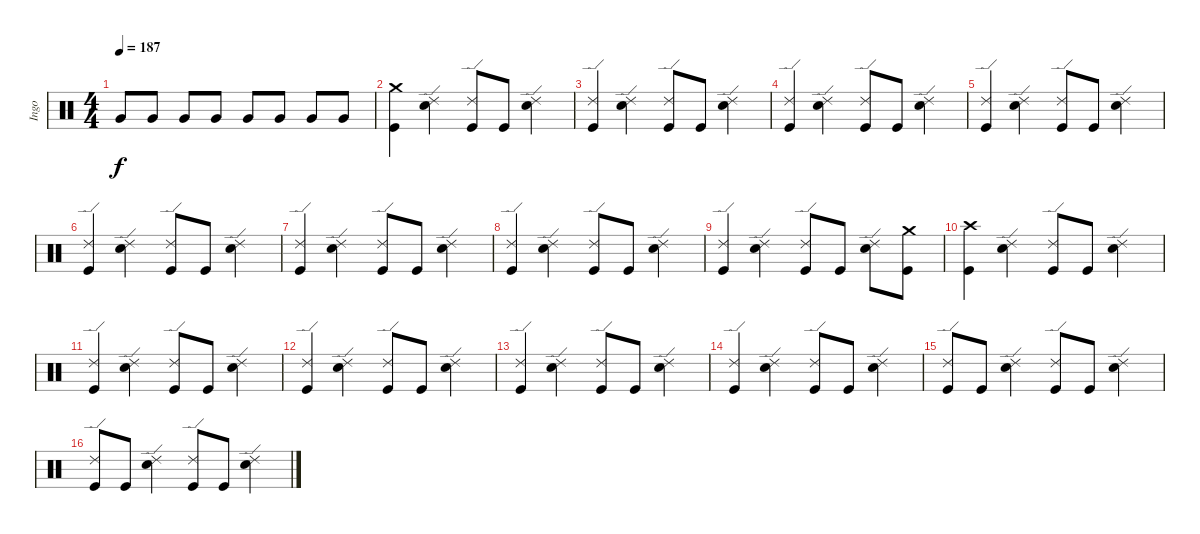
\track ("Ingo" "Ingo") {instrument percussion}
\staff {score}
\articulation defaults
\ts (4 4)
\tempo 187
\clef neutral
\ks c "Very Low Tom (hit)".8{dy f volume 13} "Very Low Tom (hit)".8 "Very Low Tom (hit)".8 "Very Low Tom (hit)".8 "Very Low Tom (hit)".8 "Very Low Tom (hit)".8 "Very Low Tom (hit)".8 "Very Low Tom (hit)".8
|
("Crash medium (hit)" "Kick (hit)").4 ("Ride (edge) 2" "Snare (hit) 2").4 ("Ride (edge) 2" "Kick (hit)").8 "Kick (hit)".8 ("Ride (edge) 2" "Snare (hit) 2").4 |
("Ride (edge) 2" "Kick (hit)").4 ("Ride (edge) 2" "Snare (hit) 2").4 ("Ride (edge) 2" "Kick (hit)").8 "Kick (hit)".8 ("Ride (edge) 2" "Snare (hit) 2").4 |
("Ride (edge) 2" "Kick (hit)").4 ("Ride (edge) 2" "Snare (hit) 2").4 ("Ride (edge) 2" "Kick (hit)").8 "Kick (hit)".8 ("Ride (edge) 2" "Snare (hit) 2").4 |
("Ride (edge) 2" "Kick (hit)").4 ("Ride (edge) 2" "Snare (hit) 2").4 ("Ride (edge) 2" "Kick (hit)").8 "Kick (hit)".8 ("Ride (edge) 2" "Snare (hit) 2").4 |
("Ride (edge) 2" "Kick (hit)").4 ("Ride (edge) 2" "Snare (hit) 2").4 ("Ride (edge) 2" "Kick (hit)").8 "Kick (hit)".8 ("Ride (edge) 2" "Snare (hit) 2").4 |
("Ride (edge) 2" "Kick (hit)").4 ("Ride (edge) 2" "Snare (hit) 2").4 ("Ride (edge) 2" "Kick (hit)").8 "Kick (hit)".8 ("Ride (edge) 2" "Snare (hit) 2").4 |
("Ride (edge) 2" "Kick (hit)").4 ("Ride (edge) 2" "Snare (hit) 2").4 ("Ride (edge) 2" "Kick (hit)").8 "Kick (hit)".8 ("Ride (edge) 2" "Snare (hit) 2").4 |
("Ride (edge) 2" "Kick (hit)").4 ("Ride (edge) 2" "Snare (hit) 2").4 ("Ride (edge) 2" "Kick (hit)").8 "Kick (hit)".8 ("Ride (edge) 2" "Snare (hit) 2").8 ("Crash medium (hit)" "Kick (hit)").8 |
("Crash high (hit)" "Kick (hit)").4 ("Ride (edge) 2" "Snare (hit) 2").4 ("Ride (edge) 2" "Kick (hit)").8 "Kick (hit)".8 ("Ride (edge) 2" "Snare (hit) 2").4 |
("Ride (edge) 2" "Kick (hit)").4 ("Ride (edge) 2" "Snare (hit) 2").4 ("Ride (edge) 2" "Kick (hit)").8 "Kick (hit)".8 ("Ride (edge) 2" "Snare (hit) 2").4 |
("Ride (edge) 2" "Kick (hit)").4 ("Ride (edge) 2" "Snare (hit) 2").4 ("Ride (edge) 2" "Kick (hit)").8 "Kick (hit)".8 ("Ride (edge) 2" "Snare (hit) 2").4 |
("Ride (edge) 2" "Kick (hit)").4 ("Ride (edge) 2" "Snare (hit) 2").4 ("Ride (edge) 2" "Kick (hit)").8 "Kick (hit)".8 ("Ride (edge) 2" "Snare (hit) 2").4 |
("Ride (edge) 2" "Kick (hit)").4 ("Ride (edge) 2" "Snare (hit) 2").4 ("Ride (edge) 2" "Kick (hit)").8 "Kick (hit)".8 ("Ride (edge) 2" "Snare (hit) 2").4 |
("Ride (edge) 2" "Kick (hit)").8 "Kick (hit)".8 ("Ride (edge) 2" "Snare (hit) 2").4 ("Ride (edge) 2" "Kick (hit)").8 "Kick (hit)".8 ("Ride (edge) 2" "Snare (hit) 2").4 |
("Ride (edge) 2" "Kick (hit)").8 "Kick (hit)".8 ("Ride (edge) 2" "Snare (hit) 2").4 ("Ride (edge) 2" "Kick (hit)").8 "Kick (hit)".8 ("Ride (edge) 2" "Snare (hit) 2").4
